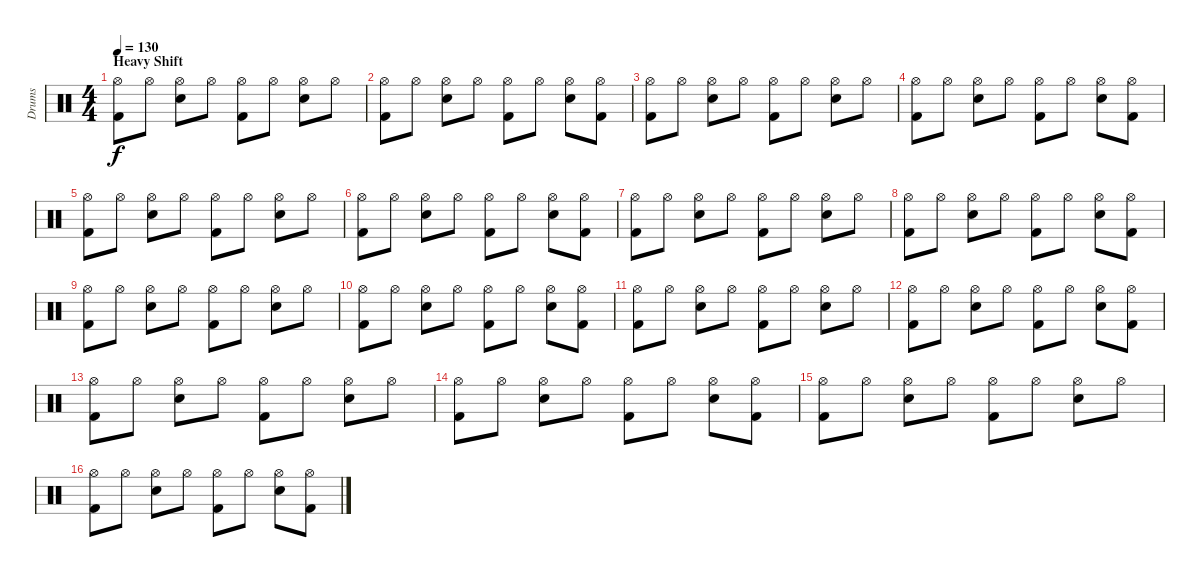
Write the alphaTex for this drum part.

\track ("Drums" "Drums") {instrument percussion}
\staff {score}
\articulation defaults
\ts (4 4)
\section ("" "Heavy Shift")
\tempo 130
\clef neutral
\ks c
("Hi-Hat (open)" "Kick (hit) 2").8{dy f} "Hi-Hat (open)".8 ("Hi-Hat (open)" "Snare (hit) 2").8 "Hi-Hat (open)".8 ("Hi-Hat (open)" "Kick (hit) 2").8 "Hi-Hat (open)".8 ("Hi-Hat (open)" "Snare (hit) 2").8 "Hi-Hat (open)".8 |
("Hi-Hat (open)" "Kick (hit) 2").8 "Hi-Hat (open)".8 ("Hi-Hat (open)" "Snare (hit) 2").8 "Hi-Hat (open)".8 ("Hi-Hat (open)" "Kick (hit) 2").8 "Hi-Hat (open)".8 ("Hi-Hat (open)" "Snare (hit) 2").8 ("Hi-Hat (open)" "Kick (hit) 2").8 |
("Hi-Hat (open)" "Kick (hit) 2").8 "Hi-Hat (open)".8 ("Hi-Hat (open)" "Snare (hit) 2").8 "Hi-Hat (open)".8 ("Hi-Hat (open)" "Kick (hit) 2").8 "Hi-Hat (open)".8 ("Hi-Hat (open)" "Snare (hit) 2").8 "Hi-Hat (open)".8 |
("Hi-Hat (open)" "Kick (hit) 2").8 "Hi-Hat (open)".8 ("Hi-Hat (open)" "Snare (hit) 2").8 "Hi-Hat (open)".8 ("Hi-Hat (open)" "Kick (hit) 2").8 "Hi-Hat (open)".8 ("Hi-Hat (open)" "Snare (hit) 2").8 ("Hi-Hat (open)" "Kick (hit) 2").8 |
("Hi-Hat (open)" "Kick (hit) 2").8 "Hi-Hat (open)".8 ("Hi-Hat (open)" "Snare (hit) 2").8 "Hi-Hat (open)".8 ("Hi-Hat (open)" "Kick (hit) 2").8 "Hi-Hat (open)".8 ("Hi-Hat (open)" "Snare (hit) 2").8 "Hi-Hat (open)".8 |
("Hi-Hat (open)" "Kick (hit) 2").8 "Hi-Hat (open)".8 ("Hi-Hat (open)" "Snare (hit) 2").8 "Hi-Hat (open)".8 ("Hi-Hat (open)" "Kick (hit) 2").8 "Hi-Hat (open)".8 ("Hi-Hat (open)" "Snare (hit) 2").8 ("Hi-Hat (open)" "Kick (hit) 2").8 |
("Hi-Hat (open)" "Kick (hit) 2").8 "Hi-Hat (open)".8 ("Hi-Hat (open)" "Snare (hit) 2").8 "Hi-Hat (open)".8 ("Hi-Hat (open)" "Kick (hit) 2").8 "Hi-Hat (open)".8 ("Hi-Hat (open)" "Snare (hit) 2").8 "Hi-Hat (open)".8 |
("Hi-Hat (open)" "Kick (hit) 2").8 "Hi-Hat (open)".8 ("Hi-Hat (open)" "Snare (hit) 2").8 "Hi-Hat (open)".8 ("Hi-Hat (open)" "Kick (hit) 2").8 "Hi-Hat (open)".8 ("Hi-Hat (open)" "Snare (hit) 2").8 ("Hi-Hat (open)" "Kick (hit) 2").8 |
("Hi-Hat (open)" "Kick (hit) 2").8 "Hi-Hat (open)".8 ("Hi-Hat (open)" "Snare (hit) 2").8 "Hi-Hat (open)".8 ("Hi-Hat (open)" "Kick (hit) 2").8 "Hi-Hat (open)".8 ("Hi-Hat (open)" "Snare (hit) 2").8 "Hi-Hat (open)".8 |
("Hi-Hat (open)" "Kick (hit) 2").8 "Hi-Hat (open)".8 ("Hi-Hat (open)" "Snare (hit) 2").8 "Hi-Hat (open)".8 ("Hi-Hat (open)" "Kick (hit) 2").8 "Hi-Hat (open)".8 ("Hi-Hat (open)" "Snare (hit) 2").8 ("Hi-Hat (open)" "Kick (hit) 2").8 |
("Hi-Hat (open)" "Kick (hit) 2").8 "Hi-Hat (open)".8 ("Hi-Hat (open)" "Snare (hit) 2").8 "Hi-Hat (open)".8 ("Hi-Hat (open)" "Kick (hit) 2").8 "Hi-Hat (open)".8 ("Hi-Hat (open)" "Snare (hit) 2").8 "Hi-Hat (open)".8 |
("Hi-Hat (open)" "Kick (hit) 2").8 "Hi-Hat (open)".8 ("Hi-Hat (open)" "Snare (hit) 2").8 "Hi-Hat (open)".8 ("Hi-Hat (open)" "Kick (hit) 2").8 "Hi-Hat (open)".8 ("Hi-Hat (open)" "Snare (hit) 2").8 ("Hi-Hat (open)" "Kick (hit) 2").8 |
("Hi-Hat (open)" "Kick (hit) 2").8 "Hi-Hat (open)".8 ("Hi-Hat (open)" "Snare (hit) 2").8 "Hi-Hat (open)".8 ("Hi-Hat (open)" "Kick (hit) 2").8 "Hi-Hat (open)".8 ("Hi-Hat (open)" "Snare (hit) 2").8 "Hi-Hat (open)".8 |
("Hi-Hat (open)" "Kick (hit) 2").8 "Hi-Hat (open)".8 ("Hi-Hat (open)" "Snare (hit) 2").8 "Hi-Hat (open)".8 ("Hi-Hat (open)" "Kick (hit) 2").8 "Hi-Hat (open)".8 ("Hi-Hat (open)" "Snare (hit) 2").8 ("Hi-Hat (open)" "Kick (hit) 2").8 |
("Hi-Hat (open)" "Kick (hit) 2").8 "Hi-Hat (open)".8 ("Hi-Hat (open)" "Snare (hit) 2").8 "Hi-Hat (open)".8 ("Hi-Hat (open)" "Kick (hit) 2").8 "Hi-Hat (open)".8 ("Hi-Hat (open)" "Snare (hit) 2").8 "Hi-Hat (open)".8 |
("Hi-Hat (open)" "Kick (hit) 2").8 "Hi-Hat (open)".8 ("Hi-Hat (open)" "Snare (hit) 2").8 "Hi-Hat (open)".8 ("Hi-Hat (open)" "Kick (hit) 2").8 "Hi-Hat (open)".8 ("Hi-Hat (open)" "Snare (hit) 2").8 ("Hi-Hat (open)" "Kick (hit) 2").8
